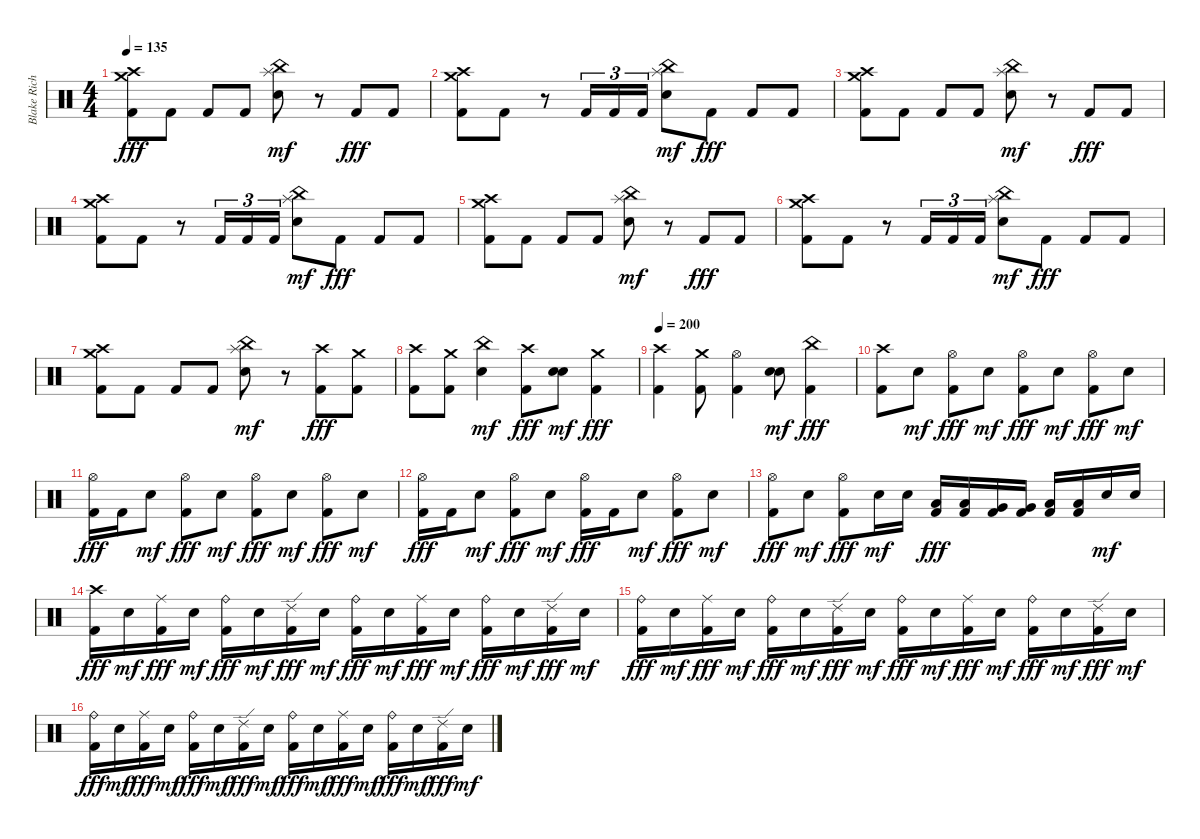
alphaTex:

\track ("Blake Richardson" "Blake Rich") {instrument percussion}
\staff {score}
\articulation defaults
\ts (4 4)
\tempo 135
\clef neutral
\ks c
("Crash medium (hit)" "Crash high (hit)" "Kick (hit) 2").8{dy fff} "Kick (hit) 2".8 "Kick (hit) 2".8 "Kick (hit) 2".8 ("Splash (hit)" "China (hit)" "Electric Snare (hit)").8{dy mf} r.8 "Kick (hit) 2".8{dy fff} "Kick (hit) 2".8 |
("Crash medium (hit)" "Crash high (hit)" "Kick (hit) 2").8 "Kick (hit) 2".8 r.8 "Kick (hit) 2".16{tu (3 2)} "Kick (hit) 2".16{tu (3 2)} "Kick (hit) 2".16{tu (3 2)} ("Splash (hit)" "China (hit)" "Electric Snare (hit)").8{dy mf} "Kick (hit) 2".8{dy fff} "Kick (hit) 2".8 "Kick (hit) 2".8 |
("Crash medium (hit)" "Crash high (hit)" "Kick (hit) 2").8 "Kick (hit) 2".8 "Kick (hit) 2".8 "Kick (hit) 2".8 ("Splash (hit)" "China (hit)" "Electric Snare (hit)").8{dy mf} r.8 "Kick (hit) 2".8{dy fff} "Kick (hit) 2".8 |
("Crash medium (hit)" "Crash high (hit)" "Kick (hit) 2").8 "Kick (hit) 2".8 r.8 "Kick (hit) 2".16{tu (3 2)} "Kick (hit) 2".16{tu (3 2)} "Kick (hit) 2".16{tu (3 2)} ("Splash (hit)" "China (hit)" "Electric Snare (hit)").8{dy mf} "Kick (hit) 2".8{dy fff} "Kick (hit) 2".8 "Kick (hit) 2".8 |
("Crash medium (hit)" "Crash high (hit)" "Kick (hit) 2").8 "Kick (hit) 2".8 "Kick (hit) 2".8 "Kick (hit) 2".8 ("Splash (hit)" "China (hit)" "Electric Snare (hit)").8{dy mf} r.8 "Kick (hit) 2".8{dy fff} "Kick (hit) 2".8 |
("Crash medium (hit)" "Crash high (hit)" "Kick (hit) 2").8 "Kick (hit) 2".8 r.8 "Kick (hit) 2".16{tu (3 2)} "Kick (hit) 2".16{tu (3 2)} "Kick (hit) 2".16{tu (3 2)} ("Splash (hit)" "China (hit)" "Electric Snare (hit)").8{dy mf} "Kick (hit) 2".8{dy fff} "Kick (hit) 2".8 "Kick (hit) 2".8 |
("Crash medium (hit)" "Crash high (hit)" "Kick (hit) 2").8 "Kick (hit) 2".8 "Kick (hit) 2".8 "Kick (hit) 2".8 ("Splash (hit)" "China (hit)" "Electric Snare (hit)").8{dy mf} r.8 ("Crash high (hit)" "Kick (hit) 2").8{dy fff} ("Crash medium (hit)" "Kick (hit) 2").8 |
("Crash high (hit)" "Kick (hit) 2").8 ("Crash medium (hit)" "Kick (hit) 2").8 ("China (hit)" "Electric Snare (hit)").4{dy mf} ("Crash high (hit)" "Kick (hit) 2").8{dy fff} ("Electric Snare (hit)" "Electric Snare (hit)").8{bu 480 dy mf} ("Crash medium (hit)" "Kick (hit) 2").4{dy fff} |
\tempo 200
("Crash high (hit)" "Kick (hit) 2").4 ("Crash medium (hit)" "Kick (hit) 2").8 ("Hi-Hat (open)" "Kick (hit) 2").4 ("Electric Snare (hit)" "Electric Snare (hit)").8{bu 480 dy mf} ("China (hit)" "Kick (hit) 2").4{dy fff} |
("Crash high (hit)" "Kick (hit) 2").8 "Electric Snare (hit)".8{dy mf} ("Hi-Hat (open)" "Kick (hit) 2").8{dy fff} "Electric Snare (hit)".8{dy mf} ("Hi-Hat (open)" "Kick (hit) 2").8{dy fff} "Electric Snare (hit)".8{dy mf} ("Hi-Hat (open)" "Kick (hit) 2").8{dy fff} "Electric Snare (hit)".8{dy mf} |
("Hi-Hat (open)" "Kick (hit) 2").16{dy fff} "Kick (hit) 2".16 "Electric Snare (hit)".8{dy mf} ("Hi-Hat (open)" "Kick (hit) 2").8{dy fff} "Electric Snare (hit)".8{dy mf} ("Hi-Hat (open)" "Kick (hit) 2").8{dy fff} "Electric Snare (hit)".8{dy mf} ("Hi-Hat (open)" "Kick (hit) 2").8{dy fff} "Electric Snare (hit)".8{dy mf} |
("Hi-Hat (open)" "Kick (hit) 2").16{dy fff} "Kick (hit) 2".16 "Electric Snare (hit)".8{dy mf} ("Hi-Hat (open)" "Kick (hit) 2").8{dy fff} "Electric Snare (hit)".8{dy mf} ("Hi-Hat (open)" "Kick (hit) 2").16{dy fff} "Kick (hit) 2".16 "Electric Snare (hit)".8{dy mf} ("Hi-Hat (open)" "Kick (hit) 2").8{dy fff} "Electric Snare (hit)".8{dy mf} |
("Hi-Hat (open)" "Kick (hit) 2").8{dy fff} "Electric Snare (hit)".8{dy mf} ("Hi-Hat (open)" "Kick (hit) 2").8{dy fff} "Electric Snare (hit)".16{dy mf} "Electric Snare (hit)".16 ("Low Tom (hit)" "Kick (hit) 2").16{dy fff} ("Low Tom (hit)" "Kick (hit) 2").16 ("Very Low Tom (hit)" "Kick (hit) 2").16 ("Very Low Tom (hit)" "Kick (hit) 2").16 ("Low Floor Tom (hit)" "Kick (hit) 2").16 ("Low Floor Tom (hit)" "Kick (hit) 2").16 "Electric Snare (hit)".16{dy mf} "Electric Snare (hit)".16 |
("Crash high (hit)" "Kick (hit) 2").16{dy fff} "Electric Snare (hit)".16{dy mf} ("Ride (middle)" "Kick (hit) 2").16{dy fff} "Electric Snare (hit)".16{dy mf} ("Ride (bell)" "Kick (hit) 2").16{dy fff} "Electric Snare (hit)".16{dy mf} ("Ride (edge) 2" "Kick (hit) 2").16{dy fff} "Electric Snare (hit)".16{dy mf} ("Ride (bell)" "Kick (hit) 2").16{dy fff} "Electric Snare (hit)".16{dy mf} ("Ride (middle)" "Kick (hit) 2").16{dy fff} "Electric Snare (hit)".16{dy mf} ("Ride (bell)" "Kick (hit) 2").16{dy fff} "Electric Snare (hit)".16{dy mf} ("Ride (edge) 2" "Kick (hit) 2").16{dy fff} "Electric Snare (hit)".16{dy mf} |
("Ride (bell)" "Kick (hit) 2").16{dy fff} "Electric Snare (hit)".16{dy mf} ("Ride (middle)" "Kick (hit) 2").16{dy fff} "Electric Snare (hit)".16{dy mf} ("Ride (bell)" "Kick (hit) 2").16{dy fff} "Electric Snare (hit)".16{dy mf} ("Ride (edge) 2" "Kick (hit) 2").16{dy fff} "Electric Snare (hit)".16{dy mf} ("Ride (bell)" "Kick (hit) 2").16{dy fff} "Electric Snare (hit)".16{dy mf} ("Ride (middle)" "Kick (hit) 2").16{dy fff} "Electric Snare (hit)".16{dy mf} ("Ride (bell)" "Kick (hit) 2").16{dy fff} "Electric Snare (hit)".16{dy mf} ("Ride (edge) 2" "Kick (hit) 2").16{dy fff} "Electric Snare (hit)".16{dy mf} |
("Ride (bell)" "Kick (hit) 2").16{dy fff} "Electric Snare (hit)".16{dy mf} ("Ride (middle)" "Kick (hit) 2").16{dy fff} "Electric Snare (hit)".16{dy mf} ("Ride (bell)" "Kick (hit) 2").16{dy fff} "Electric Snare (hit)".16{dy mf} ("Ride (edge) 2" "Kick (hit) 2").16{dy fff} "Electric Snare (hit)".16{dy mf} ("Ride (bell)" "Kick (hit) 2").16{dy fff} "Electric Snare (hit)".16{dy mf} ("Ride (middle)" "Kick (hit) 2").16{dy fff} "Electric Snare (hit)".16{dy mf} ("Ride (bell)" "Kick (hit) 2").16{dy fff} "Electric Snare (hit)".16{dy mf} ("Ride (edge) 2" "Kick (hit) 2").16{dy fff} "Electric Snare (hit)".16{dy mf}
